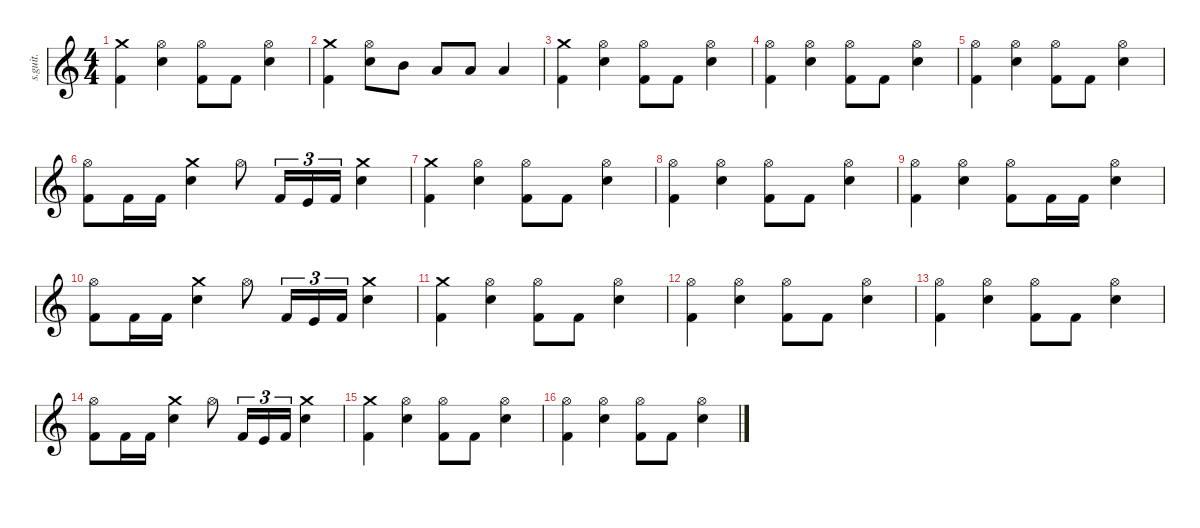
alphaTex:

\defaultSystemsLayout 4
\hideDynamics
\bracketExtendMode nobrackets
\track ("Lars Ulrich - Drums" "s.guit.") {instrument percussion}
\staff {score}
\articulation defaults
\ts (4 4)
\tempo (208 hide)
\clef g2
\ks c
("Crash medium (hit)" "Kick (hit) 2").4{lyrics (0 "") lyrics (1 "") lyrics (2 "") lyrics (3 "") lyrics (4 "") dy f} ("Hi-Hat (open)" "Snare (hit) 2").4{lyrics (0 "") lyrics (1 "") lyrics (2 "") lyrics (3 "") lyrics (4 "")} ("Hi-Hat (open)" "Kick (hit) 2").8{lyrics (0 "") lyrics (1 "") lyrics (2 "") lyrics (3 "") lyrics (4 "")} "Kick (hit) 2".8{lyrics (0 "") lyrics (1 "") lyrics (2 "") lyrics (3 "") lyrics (4 "") dy fff} ("Hi-Hat (open)" "Snare (hit) 2").4{lyrics (0 "") lyrics (1 "") lyrics (2 "") lyrics (3 "") lyrics (4 "") dy f} |
("Crash medium (hit)" "Kick (hit) 2").4{lyrics (0 "") lyrics (1 "") lyrics (2 "") lyrics (3 "") lyrics (4 "")} ("Hi-Hat (open)" "Snare (hit) 2").8{lyrics (0 "") lyrics (1 "") lyrics (2 "") lyrics (3 "") lyrics (4 "")} "Mid Tom (hit)".8{lyrics (0 "") lyrics (1 "") lyrics (2 "") lyrics (3 "") lyrics (4 "") dy fff} "Low Tom (hit)".8{lyrics (0 "") lyrics (1 "") lyrics (2 "") lyrics (3 "") lyrics (4 "")} "Low Tom (hit)".8{lyrics (0 "") lyrics (1 "") lyrics (2 "") lyrics (3 "") lyrics (4 "")} "Low Tom (hit)".4{lyrics (0 "") lyrics (1 "") lyrics (2 "") lyrics (3 "") lyrics (4 "")} |
("Crash medium (hit)" "Kick (hit) 2").4{lyrics (0 "") lyrics (1 "") lyrics (2 "") lyrics (3 "") lyrics (4 "") dy f} ("Hi-Hat (open)" "Snare (hit) 2").4{lyrics (0 "") lyrics (1 "") lyrics (2 "") lyrics (3 "") lyrics (4 "")} ("Hi-Hat (open)" "Kick (hit) 2").8{lyrics (0 "") lyrics (1 "") lyrics (2 "") lyrics (3 "") lyrics (4 "")} "Kick (hit) 2".8{lyrics (0 "") lyrics (1 "") lyrics (2 "") lyrics (3 "") lyrics (4 "") dy fff} ("Hi-Hat (open)" "Snare (hit) 2").4{lyrics (0 "") lyrics (1 "") lyrics (2 "") lyrics (3 "") lyrics (4 "") dy f} |
("Hi-Hat (open)" "Kick (hit) 2").4{lyrics (0 "") lyrics (1 "") lyrics (2 "") lyrics (3 "") lyrics (4 "")} ("Hi-Hat (open)" "Snare (hit) 2").4{lyrics (0 "") lyrics (1 "") lyrics (2 "") lyrics (3 "") lyrics (4 "")} ("Hi-Hat (open)" "Kick (hit) 2").8{lyrics (0 "") lyrics (1 "") lyrics (2 "") lyrics (3 "") lyrics (4 "")} "Kick (hit) 2".8{lyrics (0 "") lyrics (1 "") lyrics (2 "") lyrics (3 "") lyrics (4 "") dy fff} ("Hi-Hat (open)" "Snare (hit) 2").4{lyrics (0 "") lyrics (1 "") lyrics (2 "") lyrics (3 "") lyrics (4 "") dy f} |
("Hi-Hat (open)" "Kick (hit) 2").4{lyrics (0 "") lyrics (1 "") lyrics (2 "") lyrics (3 "") lyrics (4 "")} ("Hi-Hat (open)" "Snare (hit) 2").4{lyrics (0 "") lyrics (1 "") lyrics (2 "") lyrics (3 "") lyrics (4 "")} ("Hi-Hat (open)" "Kick (hit) 2").8{lyrics (0 "") lyrics (1 "") lyrics (2 "") lyrics (3 "") lyrics (4 "")} "Kick (hit) 2".8{lyrics (0 "") lyrics (1 "") lyrics (2 "") lyrics (3 "") lyrics (4 "") dy fff} ("Hi-Hat (open)" "Snare (hit) 2").4{lyrics (0 "") lyrics (1 "") lyrics (2 "") lyrics (3 "") lyrics (4 "") dy f} |
("Hi-Hat (open)" "Kick (hit) 2").8{lyrics (0 "") lyrics (1 "") lyrics (2 "") lyrics (3 "") lyrics (4 "")} "Kick (hit) 2".16{lyrics (0 "") lyrics (1 "") lyrics (2 "") lyrics (3 "") lyrics (4 "") dy ff} "Kick (hit) 2".16{lyrics (0 "") lyrics (1 "") lyrics (2 "") lyrics (3 "") lyrics (4 "")} ("Crash medium (hit)" "Snare (hit) 2").4{lyrics (0 "") lyrics (1 "") lyrics (2 "") lyrics (3 "") lyrics (4 "") dy f} "Hi-Hat (open)".8{lyrics (0 "") lyrics (1 "") lyrics (2 "") lyrics (3 "") lyrics (4 "")} "Kick (hit) 2".16{tu (3 2) lyrics (0 "") lyrics (1 "") lyrics (2 "") lyrics (3 "") lyrics (4 "") dy ff} "Kick (hit)".16{tu (3 2) lyrics (0 "") lyrics (1 "") lyrics (2 "") lyrics (3 "") lyrics (4 "") dy f} "Kick (hit) 2".16{tu (3 2) lyrics (0 "") lyrics (1 "") lyrics (2 "") lyrics (3 "") lyrics (4 "")} ("Crash medium (hit)" "Snare (hit) 2").4{lyrics (0 "") lyrics (1 "") lyrics (2 "") lyrics (3 "") lyrics (4 "")} |
("Crash medium (hit)" "Kick (hit) 2").4{lyrics (0 "") lyrics (1 "") lyrics (2 "") lyrics (3 "") lyrics (4 "")} ("Hi-Hat (open)" "Snare (hit) 2").4{lyrics (0 "") lyrics (1 "") lyrics (2 "") lyrics (3 "") lyrics (4 "")} ("Hi-Hat (open)" "Kick (hit) 2").8{lyrics (0 "") lyrics (1 "") lyrics (2 "") lyrics (3 "") lyrics (4 "")} "Kick (hit) 2".8{lyrics (0 "") lyrics (1 "") lyrics (2 "") lyrics (3 "") lyrics (4 "") dy fff} ("Hi-Hat (open)" "Snare (hit) 2").4{lyrics (0 "") lyrics (1 "") lyrics (2 "") lyrics (3 "") lyrics (4 "") dy f} |
("Hi-Hat (open)" "Kick (hit) 2").4{lyrics (0 "") lyrics (1 "") lyrics (2 "") lyrics (3 "") lyrics (4 "")} ("Hi-Hat (open)" "Snare (hit) 2").4{lyrics (0 "") lyrics (1 "") lyrics (2 "") lyrics (3 "") lyrics (4 "")} ("Hi-Hat (open)" "Kick (hit) 2").8{lyrics (0 "") lyrics (1 "") lyrics (2 "") lyrics (3 "") lyrics (4 "")} "Kick (hit) 2".8{lyrics (0 "") lyrics (1 "") lyrics (2 "") lyrics (3 "") lyrics (4 "") dy fff} ("Hi-Hat (open)" "Snare (hit) 2").4{lyrics (0 "") lyrics (1 "") lyrics (2 "") lyrics (3 "") lyrics (4 "") dy f} |
("Hi-Hat (open)" "Kick (hit) 2").4{lyrics (0 "") lyrics (1 "") lyrics (2 "") lyrics (3 "") lyrics (4 "")} ("Hi-Hat (open)" "Snare (hit) 2").4{lyrics (0 "") lyrics (1 "") lyrics (2 "") lyrics (3 "") lyrics (4 "")} ("Hi-Hat (open)" "Kick (hit) 2").8{lyrics (0 "") lyrics (1 "") lyrics (2 "") lyrics (3 "") lyrics (4 "")} "Kick (hit) 2".16{lyrics (0 "") lyrics (1 "") lyrics (2 "") lyrics (3 "") lyrics (4 "") dy ff} "Kick (hit) 2".16{lyrics (0 "") lyrics (1 "") lyrics (2 "") lyrics (3 "") lyrics (4 "")} ("Hi-Hat (open)" "Snare (hit) 2").4{lyrics (0 "") lyrics (1 "") lyrics (2 "") lyrics (3 "") lyrics (4 "") dy f} |
("Hi-Hat (open)" "Kick (hit) 2").8{lyrics (0 "") lyrics (1 "") lyrics (2 "") lyrics (3 "") lyrics (4 "")} "Kick (hit) 2".16{lyrics (0 "") lyrics (1 "") lyrics (2 "") lyrics (3 "") lyrics (4 "") dy ff} "Kick (hit) 2".16{lyrics (0 "") lyrics (1 "") lyrics (2 "") lyrics (3 "") lyrics (4 "")} ("Crash medium (hit)" "Snare (hit) 2").4{lyrics (0 "") lyrics (1 "") lyrics (2 "") lyrics (3 "") lyrics (4 "") dy f} "Hi-Hat (open)".8{lyrics (0 "") lyrics (1 "") lyrics (2 "") lyrics (3 "") lyrics (4 "")} "Kick (hit) 2".16{tu (3 2) lyrics (0 "") lyrics (1 "") lyrics (2 "") lyrics (3 "") lyrics (4 "") dy ff} "Kick (hit)".16{tu (3 2) lyrics (0 "") lyrics (1 "") lyrics (2 "") lyrics (3 "") lyrics (4 "")} "Kick (hit) 2".16{tu (3 2) lyrics (0 "") lyrics (1 "") lyrics (2 "") lyrics (3 "") lyrics (4 "") dy f} ("Crash medium (hit)" "Snare (hit) 2").4{lyrics (0 "") lyrics (1 "") lyrics (2 "") lyrics (3 "") lyrics (4 "")} |
("Crash medium (hit)" "Kick (hit) 2").4{lyrics (0 "") lyrics (1 "") lyrics (2 "") lyrics (3 "") lyrics (4 "")} ("Hi-Hat (open)" "Snare (hit) 2").4{lyrics (0 "") lyrics (1 "") lyrics (2 "") lyrics (3 "") lyrics (4 "")} ("Hi-Hat (open)" "Kick (hit) 2").8{lyrics (0 "") lyrics (1 "") lyrics (2 "") lyrics (3 "") lyrics (4 "")} "Kick (hit) 2".8{lyrics (0 "") lyrics (1 "") lyrics (2 "") lyrics (3 "") lyrics (4 "") dy fff} ("Hi-Hat (open)" "Snare (hit) 2").4{lyrics (0 "") lyrics (1 "") lyrics (2 "") lyrics (3 "") lyrics (4 "") dy f} |
("Hi-Hat (open)" "Kick (hit) 2").4{lyrics (0 "") lyrics (1 "") lyrics (2 "") lyrics (3 "") lyrics (4 "")} ("Hi-Hat (open)" "Snare (hit) 2").4{lyrics (0 "") lyrics (1 "") lyrics (2 "") lyrics (3 "") lyrics (4 "")} ("Hi-Hat (open)" "Kick (hit) 2").8{lyrics (0 "") lyrics (1 "") lyrics (2 "") lyrics (3 "") lyrics (4 "")} "Kick (hit) 2".8{lyrics (0 "") lyrics (1 "") lyrics (2 "") lyrics (3 "") lyrics (4 "") dy fff} ("Hi-Hat (open)" "Snare (hit) 2").4{lyrics (0 "") lyrics (1 "") lyrics (2 "") lyrics (3 "") lyrics (4 "") dy f} |
("Hi-Hat (open)" "Kick (hit) 2").4{lyrics (0 "") lyrics (1 "") lyrics (2 "") lyrics (3 "") lyrics (4 "")} ("Hi-Hat (open)" "Snare (hit) 2").4{lyrics (0 "") lyrics (1 "") lyrics (2 "") lyrics (3 "") lyrics (4 "")} ("Hi-Hat (open)" "Kick (hit) 2").8{lyrics (0 "") lyrics (1 "") lyrics (2 "") lyrics (3 "") lyrics (4 "")} "Kick (hit) 2".8{lyrics (0 "") lyrics (1 "") lyrics (2 "") lyrics (3 "") lyrics (4 "") dy fff} ("Hi-Hat (open)" "Snare (hit) 2").4{lyrics (0 "") lyrics (1 "") lyrics (2 "") lyrics (3 "") lyrics (4 "") dy f} |
("Hi-Hat (open)" "Kick (hit) 2").8{lyrics (0 "") lyrics (1 "") lyrics (2 "") lyrics (3 "") lyrics (4 "")} "Kick (hit) 2".16{lyrics (0 "") lyrics (1 "") lyrics (2 "") lyrics (3 "") lyrics (4 "") dy ff} "Kick (hit) 2".16{lyrics (0 "") lyrics (1 "") lyrics (2 "") lyrics (3 "") lyrics (4 "")} ("Crash medium (hit)" "Snare (hit) 2").4{lyrics (0 "") lyrics (1 "") lyrics (2 "") lyrics (3 "") lyrics (4 "") dy f} "Hi-Hat (open)".8{lyrics (0 "") lyrics (1 "") lyrics (2 "") lyrics (3 "") lyrics (4 "")} "Kick (hit) 2".16{tu (3 2) lyrics (0 "") lyrics (1 "") lyrics (2 "") lyrics (3 "") lyrics (4 "") dy ff} "Kick (hit)".16{tu (3 2) lyrics (0 "") lyrics (1 "") lyrics (2 "") lyrics (3 "") lyrics (4 "") dy f} "Kick (hit) 2".16{tu (3 2) lyrics (0 "") lyrics (1 "") lyrics (2 "") lyrics (3 "") lyrics (4 "")} ("Crash medium (hit)" "Snare (hit) 2").4{lyrics (0 "") lyrics (1 "") lyrics (2 "") lyrics (3 "") lyrics (4 "")} |
("Crash medium (hit)" "Kick (hit) 2").4{lyrics (0 "") lyrics (1 "") lyrics (2 "") lyrics (3 "") lyrics (4 "")} ("Hi-Hat (open)" "Snare (hit) 2").4{lyrics (0 "") lyrics (1 "") lyrics (2 "") lyrics (3 "") lyrics (4 "")} ("Hi-Hat (open)" "Kick (hit) 2").8{lyrics (0 "") lyrics (1 "") lyrics (2 "") lyrics (3 "") lyrics (4 "")} "Kick (hit) 2".8{lyrics (0 "") lyrics (1 "") lyrics (2 "") lyrics (3 "") lyrics (4 "") dy fff} ("Hi-Hat (open)" "Snare (hit) 2").4{lyrics (0 "") lyrics (1 "") lyrics (2 "") lyrics (3 "") lyrics (4 "") dy f} |
("Hi-Hat (open)" "Kick (hit) 2").4{lyrics (0 "") lyrics (1 "") lyrics (2 "") lyrics (3 "") lyrics (4 "")} ("Hi-Hat (open)" "Snare (hit) 2").4{lyrics (0 "") lyrics (1 "") lyrics (2 "") lyrics (3 "") lyrics (4 "")} ("Hi-Hat (open)" "Kick (hit) 2").8{lyrics (0 "") lyrics (1 "") lyrics (2 "") lyrics (3 "") lyrics (4 "")} "Kick (hit) 2".8{lyrics (0 "") lyrics (1 "") lyrics (2 "") lyrics (3 "") lyrics (4 "") dy fff} ("Hi-Hat (open)" "Snare (hit) 2").4{lyrics (0 "") lyrics (1 "") lyrics (2 "") lyrics (3 "") lyrics (4 "") dy f}
